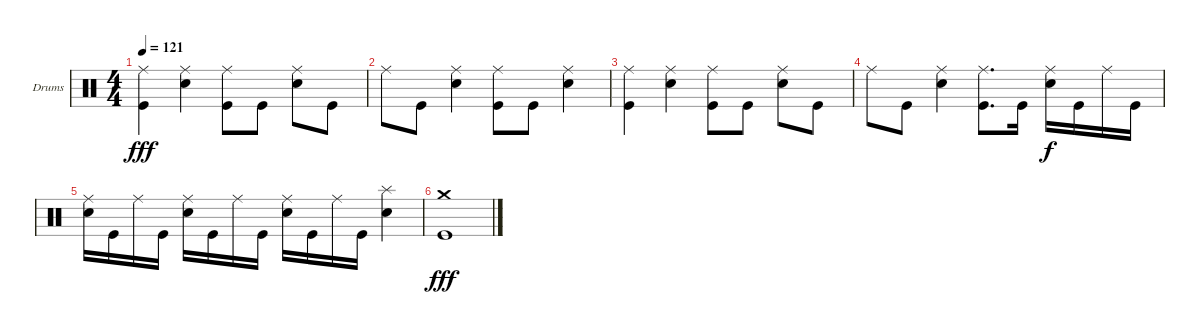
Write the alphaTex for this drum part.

\bracketExtendMode groupsimilarinstruments
\firstSystemTrackNameOrientation horizontal
\otherSystemsTrackNameOrientation horizontal
\track ("Drumkit" "Drums") {instrument percussion}
\staff {score}
\articulation defaults
\ts (4 4)
\tempo 121
\clef neutral
\ks c
("Kick (hit)" "Ride (middle)").4{dy fff} ("Snare (hit) 2" "Ride (middle)").4 ("Kick (hit)" "Ride (middle)").8 "Kick (hit)".8 ("Snare (hit) 2" "Ride (middle)").8 "Kick (hit)".8 |
"Ride (middle)".8 "Kick (hit)".8 ("Snare (hit) 2" "Ride (middle)").4 ("Kick (hit)" "Ride (middle)").8 "Kick (hit)".8 ("Snare (hit) 2" "Ride (middle)").4 |
("Kick (hit)" "Ride (middle)").4 ("Snare (hit) 2" "Ride (middle)").4 ("Kick (hit)" "Ride (middle)").8 "Kick (hit)".8 ("Snare (hit) 2" "Ride (middle)").8 "Kick (hit)".8 |
"Ride (middle)".8 "Kick (hit)".8 ("Snare (hit) 2" "Ride (middle)").4 ("Kick (hit)" "Ride (middle)").8{d} "Kick (hit)".16 ("Snare (hit) 2" "Ride (middle)").16{dy f} "Kick (hit)".16 "Ride (middle)".16 "Kick (hit)".16 |
("Snare (hit) 2" "Ride (middle)").16 "Kick (hit)".16 "Ride (middle)".16 "Kick (hit)".16 ("Snare (hit) 2" "Ride (middle)").16 "Kick (hit)".16 "Ride (middle)".16 "Kick (hit)".16 ("Snare (hit) 2" "Ride (middle)").16 "Kick (hit)".16 "Ride (middle)".16 "Kick (hit)".16 ("Snare (hit) 2" "Splash (hit)").4 |
("Kick (hit)" "Crash medium (hit)").1{dy fff}
